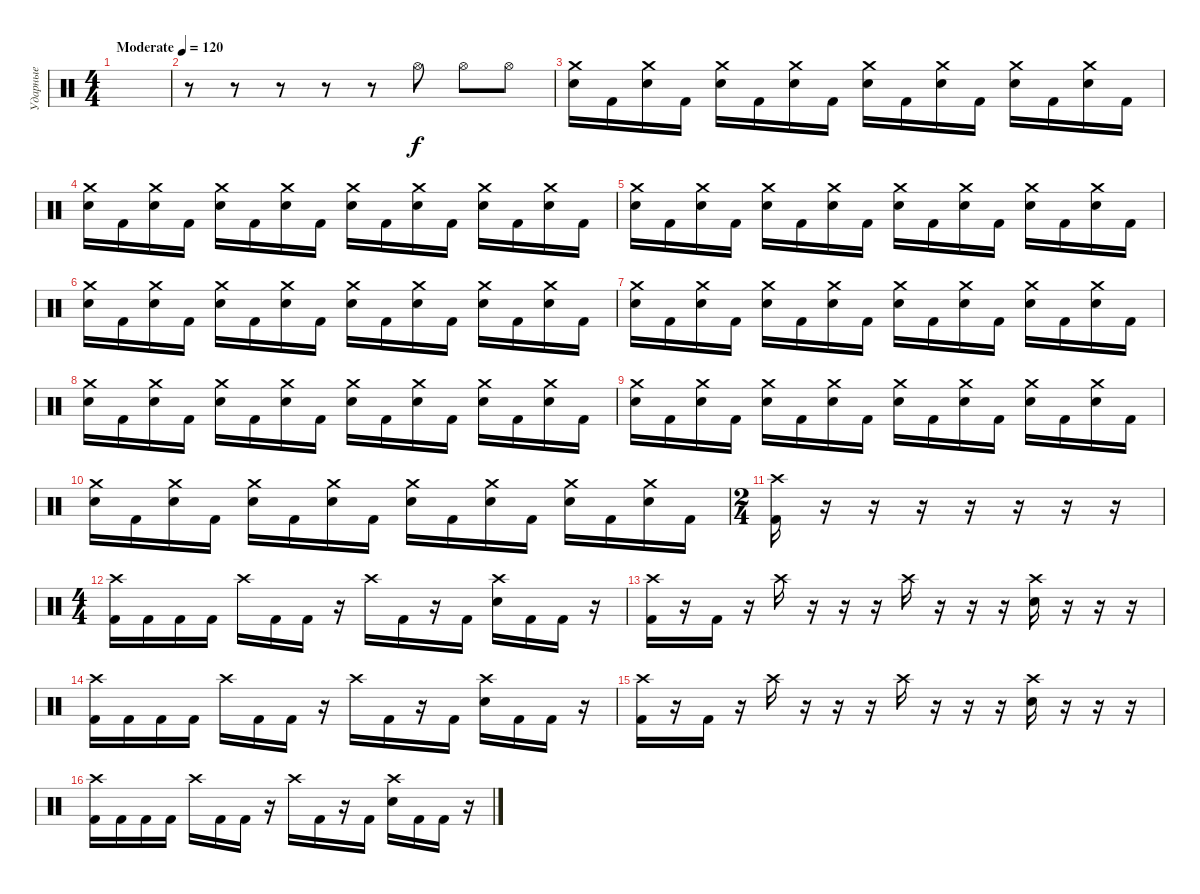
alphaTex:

\track ("Ударные" "Ударные") {instrument percussion}
\staff {score}
\articulation defaults
\ts (4 4)
\tempo (120 "Moderate")
\clef neutral
\ks c
|
r.8 r.8 r.8 r.8 r.8 "Hi-Hat (open)".8 "Hi-Hat (open)".8 "Hi-Hat (open)".8 |
("Crash medium (hit)" "Electric Snare (hit)").16 "Kick (hit) 2".16 ("Crash medium (hit)" "Electric Snare (hit)").16 "Kick (hit) 2".16 ("Crash medium (hit)" "Electric Snare (hit)").16 "Kick (hit) 2".16 ("Crash medium (hit)" "Electric Snare (hit)").16 "Kick (hit) 2".16 ("Crash medium (hit)" "Electric Snare (hit)").16 "Kick (hit) 2".16 ("Crash medium (hit)" "Electric Snare (hit)").16 "Kick (hit) 2".16 ("Crash medium (hit)" "Electric Snare (hit)").16 "Kick (hit) 2".16 ("Crash medium (hit)" "Electric Snare (hit)").16 "Kick (hit) 2".16 |
("Crash medium (hit)" "Electric Snare (hit)").16 "Kick (hit) 2".16 ("Crash medium (hit)" "Electric Snare (hit)").16 "Kick (hit) 2".16 ("Crash medium (hit)" "Electric Snare (hit)").16 "Kick (hit) 2".16 ("Crash medium (hit)" "Electric Snare (hit)").16 "Kick (hit) 2".16 ("Crash medium (hit)" "Electric Snare (hit)").16 "Kick (hit) 2".16 ("Crash medium (hit)" "Electric Snare (hit)").16 "Kick (hit) 2".16 ("Crash medium (hit)" "Electric Snare (hit)").16 "Kick (hit) 2".16 ("Crash medium (hit)" "Electric Snare (hit)").16 "Kick (hit) 2".16 |
("Crash medium (hit)" "Electric Snare (hit)").16 "Kick (hit) 2".16 ("Crash medium (hit)" "Electric Snare (hit)").16 "Kick (hit) 2".16 ("Crash medium (hit)" "Electric Snare (hit)").16 "Kick (hit) 2".16 ("Crash medium (hit)" "Electric Snare (hit)").16 "Kick (hit) 2".16 ("Crash medium (hit)" "Electric Snare (hit)").16 "Kick (hit) 2".16 ("Crash medium (hit)" "Electric Snare (hit)").16 "Kick (hit) 2".16 ("Crash medium (hit)" "Electric Snare (hit)").16 "Kick (hit) 2".16 ("Crash medium (hit)" "Electric Snare (hit)").16 "Kick (hit) 2".16 |
("Crash medium (hit)" "Electric Snare (hit)").16 "Kick (hit) 2".16 ("Crash medium (hit)" "Electric Snare (hit)").16 "Kick (hit) 2".16 ("Crash medium (hit)" "Electric Snare (hit)").16 "Kick (hit) 2".16 ("Crash medium (hit)" "Electric Snare (hit)").16 "Kick (hit) 2".16 ("Crash medium (hit)" "Electric Snare (hit)").16 "Kick (hit) 2".16 ("Crash medium (hit)" "Electric Snare (hit)").16 "Kick (hit) 2".16 ("Crash medium (hit)" "Electric Snare (hit)").16 "Kick (hit) 2".16 ("Crash medium (hit)" "Electric Snare (hit)").16 "Kick (hit) 2".16 |
("Crash medium (hit)" "Electric Snare (hit)").16 "Kick (hit) 2".16 ("Crash medium (hit)" "Electric Snare (hit)").16 "Kick (hit) 2".16 ("Crash medium (hit)" "Electric Snare (hit)").16 "Kick (hit) 2".16 ("Crash medium (hit)" "Electric Snare (hit)").16 "Kick (hit) 2".16 ("Crash medium (hit)" "Electric Snare (hit)").16 "Kick (hit) 2".16 ("Crash medium (hit)" "Electric Snare (hit)").16 "Kick (hit) 2".16 ("Crash medium (hit)" "Electric Snare (hit)").16 "Kick (hit) 2".16 ("Crash medium (hit)" "Electric Snare (hit)").16 "Kick (hit) 2".16 |
("Crash medium (hit)" "Electric Snare (hit)").16 "Kick (hit) 2".16 ("Crash medium (hit)" "Electric Snare (hit)").16 "Kick (hit) 2".16 ("Crash medium (hit)" "Electric Snare (hit)").16 "Kick (hit) 2".16 ("Crash medium (hit)" "Electric Snare (hit)").16 "Kick (hit) 2".16 ("Crash medium (hit)" "Electric Snare (hit)").16 "Kick (hit) 2".16 ("Crash medium (hit)" "Electric Snare (hit)").16 "Kick (hit) 2".16 ("Crash medium (hit)" "Electric Snare (hit)").16 "Kick (hit) 2".16 ("Crash medium (hit)" "Electric Snare (hit)").16 "Kick (hit) 2".16 |
("Crash medium (hit)" "Electric Snare (hit)").16 "Kick (hit) 2".16 ("Crash medium (hit)" "Electric Snare (hit)").16 "Kick (hit) 2".16 ("Crash medium (hit)" "Electric Snare (hit)").16 "Kick (hit) 2".16 ("Crash medium (hit)" "Electric Snare (hit)").16 "Kick (hit) 2".16 ("Crash medium (hit)" "Electric Snare (hit)").16 "Kick (hit) 2".16 ("Crash medium (hit)" "Electric Snare (hit)").16 "Kick (hit) 2".16 ("Crash medium (hit)" "Electric Snare (hit)").16 "Kick (hit) 2".16 ("Crash medium (hit)" "Electric Snare (hit)").16 "Kick (hit) 2".16 |
("Crash medium (hit)" "Electric Snare (hit)").16 "Kick (hit) 2".16 ("Crash medium (hit)" "Electric Snare (hit)").16 "Kick (hit) 2".16 ("Crash medium (hit)" "Electric Snare (hit)").16 "Kick (hit) 2".16 ("Crash medium (hit)" "Electric Snare (hit)").16 "Kick (hit) 2".16 ("Crash medium (hit)" "Electric Snare (hit)").16 "Kick (hit) 2".16 ("Crash medium (hit)" "Electric Snare (hit)").16 "Kick (hit) 2".16 ("Crash medium (hit)" "Electric Snare (hit)").16 "Kick (hit) 2".16 ("Crash medium (hit)" "Electric Snare (hit)").16 "Kick (hit) 2".16 |
\ts (2 4)
("Crash high (hit)" "Kick (hit) 2").16 r.16 r.16 r.16 r.16 r.16 r.16 r.16 |
\ts (4 4)
("Crash high (hit)" "Kick (hit) 2").16 "Kick (hit) 2".16 "Kick (hit) 2".16 "Kick (hit) 2".16 "Crash high (hit)".16 "Kick (hit) 2".16 "Kick (hit) 2".16 r.16 "Crash high (hit)".16 "Kick (hit) 2".16 r.16 "Kick (hit) 2".16 ("Crash high (hit)" "Electric Snare (hit)").16 "Kick (hit) 2".16 "Kick (hit) 2".16 r.16 |
("Crash high (hit)" "Kick (hit) 2").16 r.16 "Kick (hit) 2".16 r.16 "Crash high (hit)".16 r.16 r.16 r.16 "Crash high (hit)".16 r.16 r.16 r.16 ("Crash high (hit)" "Electric Snare (hit)").16 r.16 r.16 r.16 |
("Crash high (hit)" "Kick (hit) 2").16 "Kick (hit) 2".16 "Kick (hit) 2".16 "Kick (hit) 2".16 "Crash high (hit)".16 "Kick (hit) 2".16 "Kick (hit) 2".16 r.16 "Crash high (hit)".16 "Kick (hit) 2".16 r.16 "Kick (hit) 2".16 ("Crash high (hit)" "Electric Snare (hit)").16 "Kick (hit) 2".16 "Kick (hit) 2".16 r.16 |
("Crash high (hit)" "Kick (hit) 2").16 r.16 "Kick (hit) 2".16 r.16 "Crash high (hit)".16 r.16 r.16 r.16 "Crash high (hit)".16 r.16 r.16 r.16 ("Crash high (hit)" "Electric Snare (hit)").16 r.16 r.16 r.16 |
("Crash high (hit)" "Kick (hit) 2").16 "Kick (hit) 2".16 "Kick (hit) 2".16 "Kick (hit) 2".16 "Crash high (hit)".16 "Kick (hit) 2".16 "Kick (hit) 2".16 r.16 "Crash high (hit)".16 "Kick (hit) 2".16 r.16 "Kick (hit) 2".16 ("Crash high (hit)" "Electric Snare (hit)").16 "Kick (hit) 2".16 "Kick (hit) 2".16 r.16
